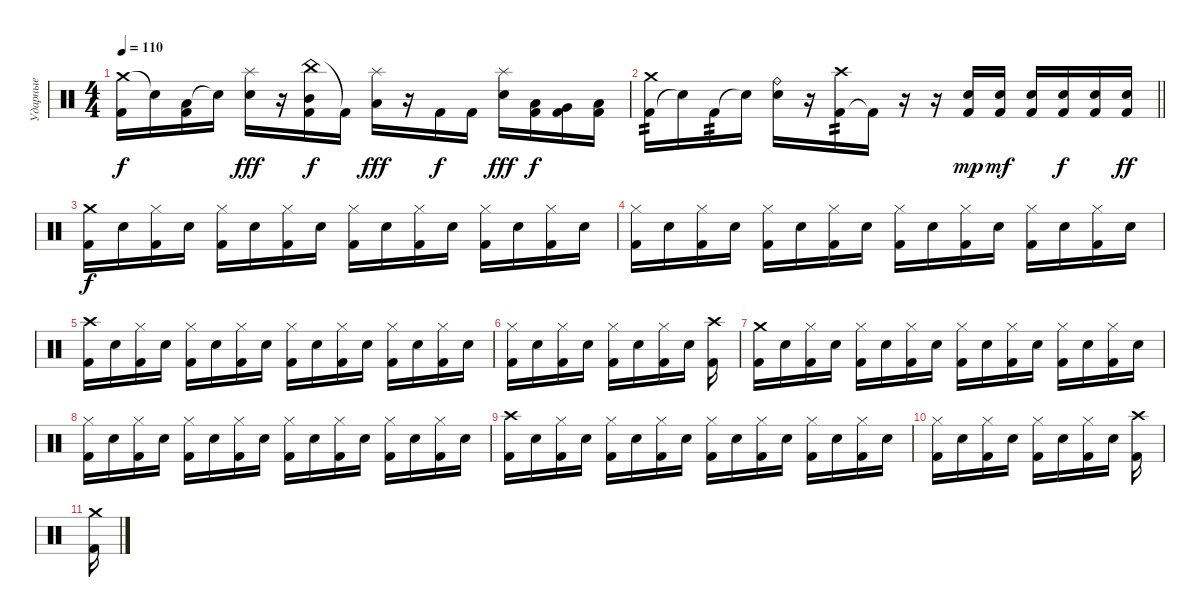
\track ("Ударные" "Ударные") {instrument percussion}
\staff {score}
\articulation defaults
\ts (4 4)
\tempo 110
\clef neutral
\ks c
("Crash medium (hit)" "Kick (hit) 2").16{dy f} "Snare (hit)"{t}.16 ("Low Tom (hit)" "Kick (hit) 2").16 "Snare (hit)"{t}.16 ("Splash (hit)" "Snare (hit) 2").16{dy fff} r.16 ("China (hit)" "Mid Tom (hit)" "Kick (hit) 2").16{dy f} "Kick (hit) 2"{t}.16 ("Splash (hit)" "Low Tom (hit)").16{dy fff} r.16 "Kick (hit) 2".16{dy f} "Kick (hit) 2".16 ("Splash (hit)" "Snare (hit) 2").16{dy fff} ("Low Tom (hit)" "Kick (hit) 2").16{dy f} ("Very Low Tom (hit)" "Kick (hit) 2").16 ("Low Floor Tom (hit)" "Kick (hit) 2").16 |
\barLineRight lightlight
("Kick (hit) 2" "Crash medium (hit)").16{tp 2} "Snare (hit)"{t}.16 "Kick (hit) 2".16{tp 2} "Snare (hit)"{t}.16 ("Electric Snare (hit)" "Ride (bell)").16 r.16 ("Kick (hit) 2" "Crash high (hit)").16{tp 2} "Kick (hit) 2"{t}.16 r.16 r.16 ("Snare (hit) 2" "Kick (hit) 2").16{dy mp} ("Snare (hit) 2" "Kick (hit) 2").16{dy mf} ("Snare (hit) 2" "Kick (hit) 2").16 ("Snare (hit) 2" "Kick (hit) 2").16{dy f} ("Snare (hit) 2" "Kick (hit) 2").16 ("Snare (hit) 2" "Kick (hit) 2").16{dy ff} |
("Crash medium (hit)" "Kick (hit) 2").16{dy f} "Snare (hit) 2".16 ("Hi-Hat (closed)" "Kick (hit) 2").16 "Snare (hit) 2".16 ("Hi-Hat (closed)" "Kick (hit) 2").16 "Snare (hit) 2".16 ("Hi-Hat (closed)" "Kick (hit) 2").16 "Snare (hit) 2".16 ("Hi-Hat (closed)" "Kick (hit) 2").16 "Snare (hit) 2".16 ("Hi-Hat (closed)" "Kick (hit) 2").16 "Snare (hit) 2".16 ("Hi-Hat (closed)" "Kick (hit) 2").16 "Snare (hit) 2".16 ("Hi-Hat (closed)" "Kick (hit) 2").16 "Snare (hit) 2".16 |
("Hi-Hat (closed)" "Kick (hit) 2").16 "Snare (hit) 2".16 ("Hi-Hat (closed)" "Kick (hit) 2").16 "Snare (hit) 2".16 ("Hi-Hat (closed)" "Kick (hit) 2").16 "Snare (hit) 2".16 ("Hi-Hat (closed)" "Kick (hit) 2").16 "Snare (hit) 2".16 ("Hi-Hat (closed)" "Kick (hit) 2").16 "Snare (hit) 2".16 ("Hi-Hat (closed)" "Kick (hit) 2").16 "Snare (hit) 2".16 ("Hi-Hat (closed)" "Kick (hit) 2").16 "Snare (hit) 2".16 ("Hi-Hat (closed)" "Kick (hit) 2").16 "Snare (hit) 2".16 |
("Crash high (hit)" "Kick (hit) 2").16 "Snare (hit) 2".16 ("Hi-Hat (closed)" "Kick (hit) 2").16 "Snare (hit) 2".16 ("Hi-Hat (closed)" "Kick (hit) 2").16 "Snare (hit) 2".16 ("Hi-Hat (closed)" "Kick (hit) 2").16 "Snare (hit) 2".16 ("Hi-Hat (closed)" "Kick (hit) 2").16 "Snare (hit) 2".16 ("Hi-Hat (closed)" "Kick (hit) 2").16 "Snare (hit) 2".16 ("Hi-Hat (closed)" "Kick (hit) 2").16 "Snare (hit) 2".16 ("Hi-Hat (closed)" "Kick (hit) 2").16 "Snare (hit) 2".16 |
("Hi-Hat (closed)" "Kick (hit) 2").16 "Snare (hit) 2".16 ("Hi-Hat (closed)" "Kick (hit) 2").16 "Snare (hit) 2".16 ("Hi-Hat (closed)" "Kick (hit) 2").16 "Snare (hit) 2".16 ("Hi-Hat (closed)" "Kick (hit) 2").16 "Snare (hit) 2".16 ("Crash high (hit)" "Kick (hit) 2").16 |
("Crash medium (hit)" "Kick (hit) 2").16 "Snare (hit) 2".16 ("Hi-Hat (closed)" "Kick (hit) 2").16 "Snare (hit) 2".16 ("Hi-Hat (closed)" "Kick (hit) 2").16 "Snare (hit) 2".16 ("Hi-Hat (closed)" "Kick (hit) 2").16 "Snare (hit) 2".16 ("Hi-Hat (closed)" "Kick (hit) 2").16 "Snare (hit) 2".16 ("Hi-Hat (closed)" "Kick (hit) 2").16 "Snare (hit) 2".16 ("Hi-Hat (closed)" "Kick (hit) 2").16 "Snare (hit) 2".16 ("Hi-Hat (closed)" "Kick (hit) 2").16 "Snare (hit) 2".16 |
("Hi-Hat (closed)" "Kick (hit) 2").16 "Snare (hit) 2".16 ("Hi-Hat (closed)" "Kick (hit) 2").16 "Snare (hit) 2".16 ("Hi-Hat (closed)" "Kick (hit) 2").16 "Snare (hit) 2".16 ("Hi-Hat (closed)" "Kick (hit) 2").16 "Snare (hit) 2".16 ("Hi-Hat (closed)" "Kick (hit) 2").16 "Snare (hit) 2".16 ("Hi-Hat (closed)" "Kick (hit) 2").16 "Snare (hit) 2".16 ("Hi-Hat (closed)" "Kick (hit) 2").16 "Snare (hit) 2".16 ("Hi-Hat (closed)" "Kick (hit) 2").16 "Snare (hit) 2".16 |
("Crash high (hit)" "Kick (hit) 2").16 "Snare (hit) 2".16 ("Hi-Hat (closed)" "Kick (hit) 2").16 "Snare (hit) 2".16 ("Hi-Hat (closed)" "Kick (hit) 2").16 "Snare (hit) 2".16 ("Hi-Hat (closed)" "Kick (hit) 2").16 "Snare (hit) 2".16 ("Hi-Hat (closed)" "Kick (hit) 2").16 "Snare (hit) 2".16 ("Hi-Hat (closed)" "Kick (hit) 2").16 "Snare (hit) 2".16 ("Hi-Hat (closed)" "Kick (hit) 2").16 "Snare (hit) 2".16 ("Hi-Hat (closed)" "Kick (hit) 2").16 "Snare (hit) 2".16 |
("Hi-Hat (closed)" "Kick (hit) 2").16 "Snare (hit) 2".16 ("Hi-Hat (closed)" "Kick (hit) 2").16 "Snare (hit) 2".16 ("Hi-Hat (closed)" "Kick (hit) 2").16 "Snare (hit) 2".16 ("Hi-Hat (closed)" "Kick (hit) 2").16 "Snare (hit) 2".16 ("Crash high (hit)" "Kick (hit) 2").16 |
("Crash medium (hit)" "Kick (hit) 2").16
